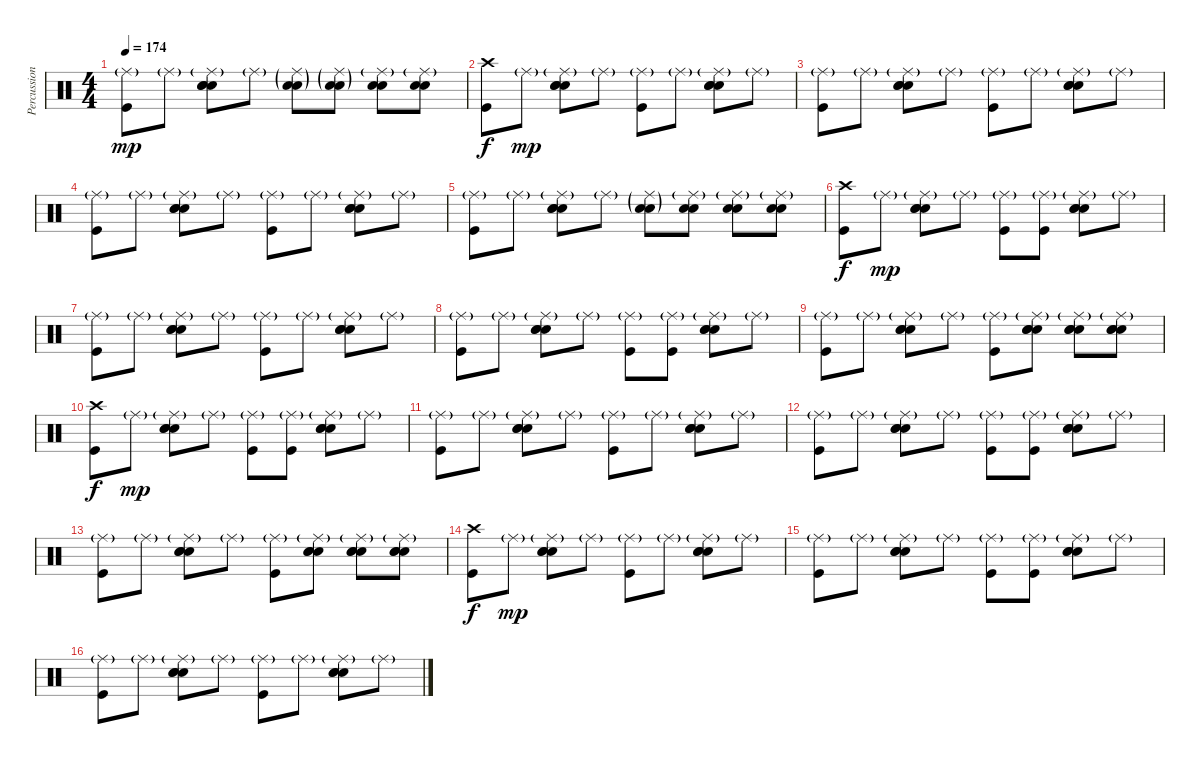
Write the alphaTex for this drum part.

\track ("Percussion" "Percussion") {instrument percussion}
\staff {score}
\articulation defaults
\ts (4 4)
\tempo 174
\clef neutral
\ks c
("Ride (middle)"{g} "Kick (hit)").8{dy mp} "Ride (middle)"{g}.8 ("Ride (middle)"{g} "Snare (hit) 2" "Electric Snare (hit)" "Electric Snare (hit)").8 "Ride (middle)"{g}.8 ("Ride (middle)"{g} "Snare (hit) 2"{g} "Electric Snare (hit)"{g}).8 ("Ride (middle)"{g} "Snare (hit) 2"{g} "Electric Snare (hit)"{g}).8 ("Ride (middle)"{g} "Snare (hit) 2" "Electric Snare (hit)").8 ("Ride (middle)"{g} "Snare (hit) 2" "Electric Snare (hit)").8 |
("Crash high (hit)" "Kick (hit)").8{dy f} "Ride (middle)"{g}.8{dy mp} ("Ride (middle)"{g} "Snare (hit) 2" "Electric Snare (hit)" "Electric Snare (hit)").8 "Ride (middle)"{g}.8 ("Ride (middle)"{g} "Kick (hit)").8 "Ride (middle)"{g}.8 ("Ride (middle)"{g} "Snare (hit) 2" "Electric Snare (hit)" "Electric Snare (hit)").8 "Ride (middle)"{g}.8 |
("Ride (middle)"{g} "Kick (hit)").8 "Ride (middle)"{g}.8 ("Ride (middle)"{g} "Snare (hit) 2" "Electric Snare (hit)" "Electric Snare (hit)").8 "Ride (middle)"{g}.8 ("Ride (middle)"{g} "Kick (hit)").8 "Ride (middle)"{g}.8 ("Ride (middle)"{g} "Snare (hit) 2" "Electric Snare (hit)" "Electric Snare (hit)").8 "Ride (middle)"{g}.8 |
("Ride (middle)"{g} "Kick (hit)").8 "Ride (middle)"{g}.8 ("Ride (middle)"{g} "Snare (hit) 2" "Electric Snare (hit)" "Electric Snare (hit)").8 "Ride (middle)"{g}.8 ("Ride (middle)"{g} "Kick (hit)").8 "Ride (middle)"{g}.8 ("Ride (middle)"{g} "Snare (hit) 2" "Electric Snare (hit)" "Electric Snare (hit)").8 "Ride (middle)"{g}.8 |
("Ride (middle)"{g} "Kick (hit)").8 "Ride (middle)"{g}.8 ("Ride (middle)"{g} "Snare (hit) 2" "Electric Snare (hit)" "Electric Snare (hit)").8 "Ride (middle)"{g}.8 ("Ride (middle)"{g} "Snare (hit) 2"{g} "Electric Snare (hit)"{g}).8 ("Ride (middle)"{g} "Snare (hit) 2" "Electric Snare (hit)").8 ("Ride (middle)"{g} "Snare (hit) 2" "Electric Snare (hit)").8 ("Ride (middle)"{g} "Snare (hit) 2" "Electric Snare (hit)").8 |
("Crash high (hit)" "Kick (hit)").8{dy f} "Ride (middle)"{g}.8{dy mp} ("Ride (middle)"{g} "Snare (hit) 2" "Electric Snare (hit)" "Electric Snare (hit)").8 "Ride (middle)"{g}.8 ("Ride (middle)"{g} "Kick (hit)").8 ("Ride (middle)"{g} "Kick (hit)").8 ("Ride (middle)"{g} "Snare (hit) 2" "Electric Snare (hit)" "Electric Snare (hit)").8 "Ride (middle)"{g}.8 |
("Ride (middle)"{g} "Kick (hit)").8 "Ride (middle)"{g}.8 ("Ride (middle)"{g} "Snare (hit) 2" "Electric Snare (hit)" "Electric Snare (hit)").8 "Ride (middle)"{g}.8 ("Ride (middle)"{g} "Kick (hit)").8 "Ride (middle)"{g}.8 ("Ride (middle)"{g} "Snare (hit) 2" "Electric Snare (hit)" "Electric Snare (hit)").8 "Ride (middle)"{g}.8 |
("Ride (middle)"{g} "Kick (hit)").8 "Ride (middle)"{g}.8 ("Ride (middle)"{g} "Snare (hit) 2" "Electric Snare (hit)" "Electric Snare (hit)").8 "Ride (middle)"{g}.8 ("Ride (middle)"{g} "Kick (hit)").8 ("Ride (middle)"{g} "Kick (hit)").8 ("Ride (middle)"{g} "Snare (hit) 2" "Electric Snare (hit)" "Electric Snare (hit)").8 "Ride (middle)"{g}.8 |
("Ride (middle)"{g} "Kick (hit)").8 "Ride (middle)"{g}.8 ("Ride (middle)"{g} "Snare (hit) 2" "Electric Snare (hit)" "Electric Snare (hit)").8 "Ride (middle)"{g}.8 ("Ride (middle)"{g} "Kick (hit)").8 ("Ride (middle)"{g} "Snare (hit) 2" "Electric Snare (hit)" "Electric Snare (hit)").8 ("Ride (middle)"{g} "Snare (hit) 2" "Electric Snare (hit)" "Electric Snare (hit)").8 ("Ride (middle)"{g} "Snare (hit) 2" "Electric Snare (hit)" "Electric Snare (hit)").8 |
("Crash high (hit)" "Kick (hit)").8{dy f} "Ride (middle)"{g}.8{dy mp} ("Ride (middle)"{g} "Snare (hit) 2" "Electric Snare (hit)" "Electric Snare (hit)").8 "Ride (middle)"{g}.8 ("Ride (middle)"{g} "Kick (hit)").8 ("Ride (middle)"{g} "Kick (hit)").8 ("Ride (middle)"{g} "Snare (hit) 2" "Electric Snare (hit)" "Electric Snare (hit)").8 "Ride (middle)"{g}.8 |
("Ride (middle)"{g} "Kick (hit)").8 "Ride (middle)"{g}.8 ("Ride (middle)"{g} "Snare (hit) 2" "Electric Snare (hit)" "Electric Snare (hit)").8 "Ride (middle)"{g}.8 ("Ride (middle)"{g} "Kick (hit)").8 "Ride (middle)"{g}.8 ("Ride (middle)"{g} "Snare (hit) 2" "Electric Snare (hit)" "Electric Snare (hit)").8 "Ride (middle)"{g}.8 |
("Ride (middle)"{g} "Kick (hit)").8 "Ride (middle)"{g}.8 ("Ride (middle)"{g} "Snare (hit) 2" "Electric Snare (hit)" "Electric Snare (hit)").8 "Ride (middle)"{g}.8 ("Ride (middle)"{g} "Kick (hit)").8 ("Ride (middle)"{g} "Kick (hit)").8 ("Ride (middle)"{g} "Snare (hit) 2" "Electric Snare (hit)" "Electric Snare (hit)").8 "Ride (middle)"{g}.8 |
("Ride (middle)"{g} "Kick (hit)").8 "Ride (middle)"{g}.8 ("Ride (middle)"{g} "Snare (hit) 2" "Electric Snare (hit)" "Electric Snare (hit)").8 "Ride (middle)"{g}.8 ("Ride (middle)"{g} "Kick (hit)").8 ("Ride (middle)"{g} "Snare (hit) 2" "Electric Snare (hit)" "Electric Snare (hit)").8 ("Ride (middle)"{g} "Snare (hit) 2" "Electric Snare (hit)" "Electric Snare (hit)").8 ("Ride (middle)"{g} "Snare (hit) 2" "Electric Snare (hit)" "Electric Snare (hit)").8 |
("Crash high (hit)" "Kick (hit)").8{dy f} "Ride (middle)"{g}.8{dy mp} ("Ride (middle)"{g} "Snare (hit) 2" "Electric Snare (hit)" "Electric Snare (hit)").8 "Ride (middle)"{g}.8 ("Ride (middle)"{g} "Kick (hit)").8 "Ride (middle)"{g}.8 ("Ride (middle)"{g} "Snare (hit) 2" "Electric Snare (hit)" "Electric Snare (hit)").8 "Ride (middle)"{g}.8 |
("Ride (middle)"{g} "Kick (hit)").8 "Ride (middle)"{g}.8 ("Ride (middle)"{g} "Snare (hit) 2" "Electric Snare (hit)" "Electric Snare (hit)").8 "Ride (middle)"{g}.8 ("Ride (middle)"{g} "Kick (hit)").8 ("Ride (middle)"{g} "Kick (hit)").8 ("Ride (middle)"{g} "Snare (hit) 2" "Electric Snare (hit)" "Electric Snare (hit)").8 "Ride (middle)"{g}.8 |
("Ride (middle)"{g} "Kick (hit)").8 "Ride (middle)"{g}.8 ("Ride (middle)"{g} "Snare (hit) 2" "Electric Snare (hit)" "Electric Snare (hit)").8 "Ride (middle)"{g}.8 ("Ride (middle)"{g} "Kick (hit)").8 "Ride (middle)"{g}.8 ("Ride (middle)"{g} "Snare (hit) 2" "Electric Snare (hit)" "Electric Snare (hit)").8 "Ride (middle)"{g}.8
